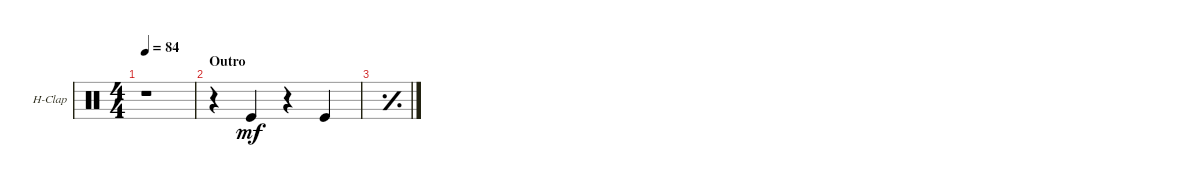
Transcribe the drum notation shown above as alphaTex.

\defaultSystemsLayout 4
\bracketExtendMode groupsimilarinstruments
\firstSystemTrackNameOrientation horizontal
\otherSystemsTrackNameOrientation horizontal
\track ("Hand Clap" "H-Clap") {instrument percussion}
\staff {score}
\articulation defaults
\ts (4 4)
\tempo 84
\clef neutral
\ks c
r.1{dy mf} |
\section ("" "Outro")
r.4 "Kick (hit)".4 r.4 "Kick (hit)".4 |
\simile simple
